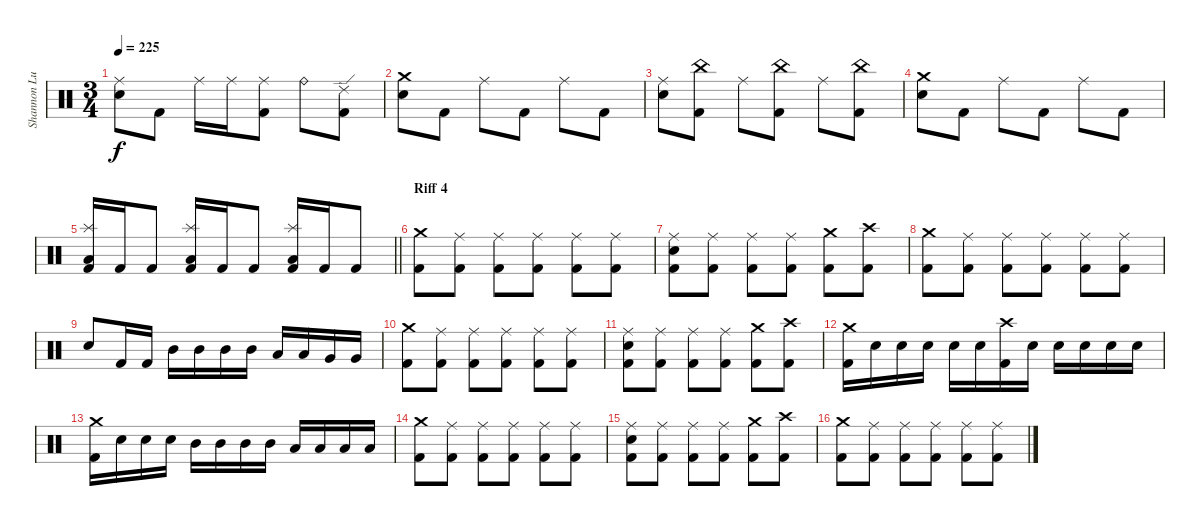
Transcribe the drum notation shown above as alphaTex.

\track ("Shannon Lucas" "Shannon Lu") {instrument percussion}
\staff {score}
\articulation defaults
\ts (3 4)
\tempo 225
\clef neutral
\ks c
("Ride (middle)" "Electric Snare (hit)").8{dy f} "Kick (hit) 2".8 "Ride (middle)".16 "Ride (middle)".16 ("Ride (middle)" "Kick (hit) 2").8 "Ride (bell)".8 ("Ride (edge) 2" "Kick (hit) 2").8 |
("Crash medium (hit)" "Electric Snare (hit)").8 "Kick (hit) 2".8 "Ride (middle)".8 "Kick (hit) 2".8 "Ride (middle)".8 "Kick (hit) 2".8 |
("Ride (middle)" "Electric Snare (hit)").8 ("China (hit)" "Kick (hit) 2").8 "Ride (middle)".8 ("China (hit)" "Kick (hit) 2").8 "Ride (middle)".8 ("China (hit)" "Kick (hit) 2").8 |
("Crash medium (hit)" "Electric Snare (hit)").8 "Kick (hit) 2".8 "Ride (middle)".8 "Kick (hit) 2".8 "Ride (middle)".8 "Kick (hit) 2".8 |
\barLineRight lightlight
("Splash (hit)" "Low Floor Tom (hit)" "Kick (hit) 2").16 "Kick (hit) 2".16 "Kick (hit) 2".8 ("Splash (hit)" "Low Floor Tom (hit)" "Kick (hit) 2").16 "Kick (hit) 2".16 "Kick (hit) 2".8 ("Splash (hit)" "Low Floor Tom (hit)" "Kick (hit) 2").16 "Kick (hit) 2".16 "Kick (hit) 2".8 |
\section ("" "Riff 4")
("Crash medium (hit)" "Kick (hit) 2").8 ("Ride (middle)" "Kick (hit) 2").8 ("Ride (middle)" "Kick (hit) 2").8 ("Ride (middle)" "Kick (hit) 2").8 ("Ride (middle)" "Kick (hit) 2").8 ("Ride (middle)" "Kick (hit) 2").8 |
("Ride (middle)" "Electric Snare (hit)" "Kick (hit) 2").8 ("Ride (middle)" "Kick (hit) 2").8 ("Ride (middle)" "Kick (hit) 2").8 ("Ride (middle)" "Kick (hit) 2").8 ("Crash medium (hit)" "Kick (hit) 2").8 ("Crash high (hit)" "Kick (hit) 2").8 |
("Crash medium (hit)" "Kick (hit) 2").8 ("Ride (middle)" "Kick (hit) 2").8 ("Ride (middle)" "Kick (hit) 2").8 ("Ride (middle)" "Kick (hit) 2").8 ("Ride (middle)" "Kick (hit) 2").8 ("Ride (middle)" "Kick (hit) 2").8 |
"Electric Snare (hit)".8 "Kick (hit) 2".16 "Kick (hit) 2".16 "Mid Tom (hit)".16 "Mid Tom (hit)".16 "Mid Tom (hit)".16 "Mid Tom (hit)".16 "Low Tom (hit)".16 "Low Tom (hit)".16 "Very Low Tom (hit)".16 "Very Low Tom (hit)".16 |
("Crash medium (hit)" "Kick (hit) 2").8 ("Ride (middle)" "Kick (hit) 2").8 ("Ride (middle)" "Kick (hit) 2").8 ("Ride (middle)" "Kick (hit) 2").8 ("Ride (middle)" "Kick (hit) 2").8 ("Ride (middle)" "Kick (hit) 2").8 |
("Ride (middle)" "Electric Snare (hit)" "Kick (hit) 2").8 ("Ride (middle)" "Kick (hit) 2").8 ("Ride (middle)" "Kick (hit) 2").8 ("Ride (middle)" "Kick (hit) 2").8 ("Crash medium (hit)" "Kick (hit) 2").8 ("Crash high (hit)" "Kick (hit) 2").8 |
("Crash medium (hit)" "Kick (hit) 2").16 "Electric Snare (hit)".16 "Electric Snare (hit)".16 "Electric Snare (hit)".16 "Electric Snare (hit)".16 "Electric Snare (hit)".16 ("Crash high (hit)" "Kick (hit) 2").16 "Electric Snare (hit)".16 "Electric Snare (hit)".16 "Electric Snare (hit)".16 "Electric Snare (hit)".16 "Electric Snare (hit)".16 |
("Crash medium (hit)" "Kick (hit) 2").16 "Electric Snare (hit)".16 "Electric Snare (hit)".16 "Electric Snare (hit)".16 "Mid Tom (hit)".16 "Mid Tom (hit)".16 "Mid Tom (hit)".16 "Mid Tom (hit)".16 "Low Tom (hit)".16 "Low Tom (hit)".16 "Low Tom (hit)".16 "Low Tom (hit)".16 |
("Crash medium (hit)" "Kick (hit) 2").8 ("Ride (middle)" "Kick (hit) 2").8 ("Ride (middle)" "Kick (hit) 2").8 ("Ride (middle)" "Kick (hit) 2").8 ("Ride (middle)" "Kick (hit) 2").8 ("Ride (middle)" "Kick (hit) 2").8 |
("Ride (middle)" "Electric Snare (hit)" "Kick (hit) 2").8 ("Ride (middle)" "Kick (hit) 2").8 ("Ride (middle)" "Kick (hit) 2").8 ("Ride (middle)" "Kick (hit) 2").8 ("Crash medium (hit)" "Kick (hit) 2").8 ("Crash high (hit)" "Kick (hit) 2").8 |
("Crash medium (hit)" "Kick (hit) 2").8 ("Ride (middle)" "Kick (hit) 2").8 ("Ride (middle)" "Kick (hit) 2").8 ("Ride (middle)" "Kick (hit) 2").8 ("Ride (middle)" "Kick (hit) 2").8 ("Ride (middle)" "Kick (hit) 2").8
